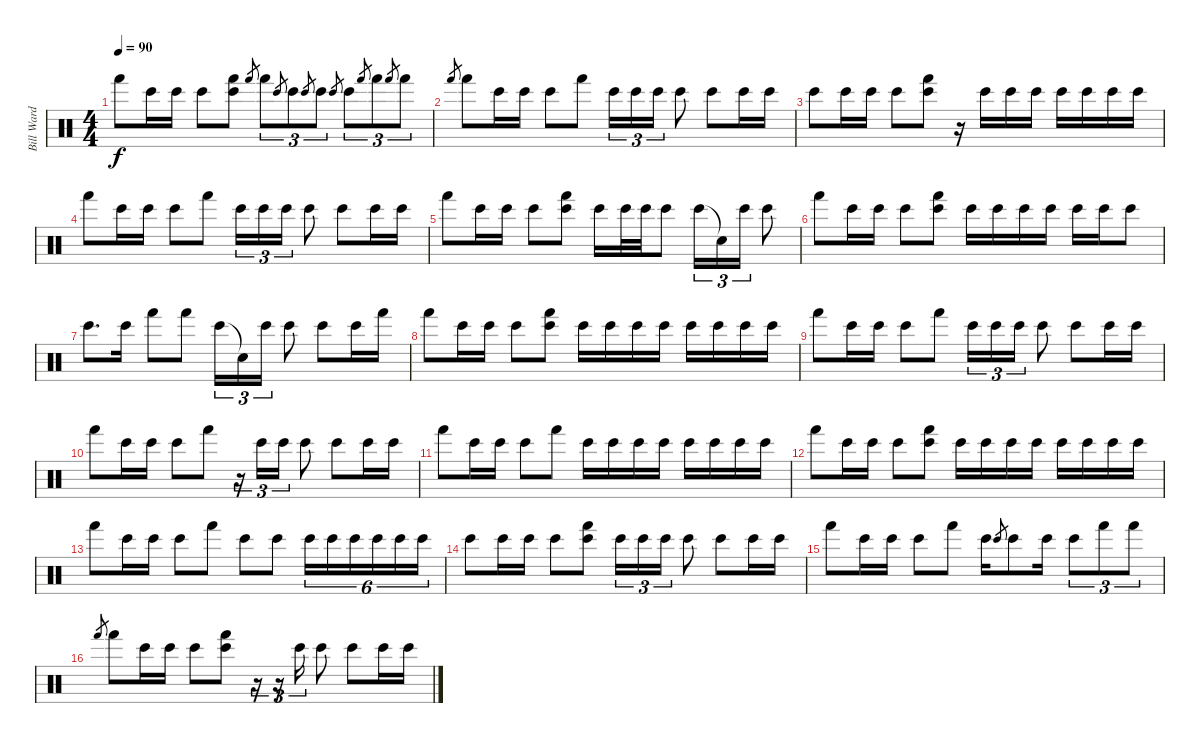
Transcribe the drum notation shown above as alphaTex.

\track ("Bill Ward" "Bill Ward") {instrument percussion}
\staff {score}
\articulation defaults
\ts (4 4)
\tempo 90
\clef neutral
\ks c "Hand (hit)".8{dy f} "Bongo High (hit)".16 "Bongo High (hit)".16 "Bongo High (hit)".8
("Bongo High (hit)" "Hand (hit)").8 "Hand (hit)".8{gr} "Hand (hit)".8{tu (3 2)} "Bongo High (hit)".8{gr} "Bongo High (hit)".8{tu (3 2)} "Bongo High (hit)".8{gr} "Bongo High (hit)".8{tu (3 2)} "Bongo High (hit)".8{gr} "Bongo High (hit)".8{tu (3 2)} "Hand (hit)".8{gr} "Hand (hit)".8{tu (3 2)} "Hand (hit)".8{gr} "Hand (hit)".8{tu (3 2)} |
"Hand (hit)".8{gr} "Hand (hit)".8 "Bongo High (hit)".16 "Bongo High (hit)".16 "Bongo High (hit)".8 "Hand (hit)".8 "Bongo High (hit)".16{tu (3 2)} "Bongo High (hit)".16{tu (3 2)} "Bongo High (hit)".16{tu (3 2)} "Bongo High (hit)".8 "Bongo High (hit)".8 "Bongo High (hit)".16 "Bongo High (hit)".16 |
"Bongo High (hit)".8 "Bongo High (hit)".16 "Bongo High (hit)".16 "Bongo High (hit)".8 ("Bongo High (hit)" "Hand (hit)").8 r.16 "Bongo High (hit)".16 "Bongo High (hit)".16 "Bongo High (hit)".16 "Bongo High (hit)".16 "Bongo High (hit)".16 "Bongo High (hit)".16 "Bongo High (hit)".16 |
"Hand (hit)".8 "Bongo High (hit)".16 "Bongo High (hit)".16 "Bongo High (hit)".8 "Hand (hit)".8 "Bongo High (hit)".16{tu (3 2)} "Bongo High (hit)".16{tu (3 2)} "Bongo High (hit)".16{tu (3 2)} "Bongo High (hit)".8 "Bongo High (hit)".8 "Bongo High (hit)".16 "Bongo High (hit)".16 |
"Hand (hit)".8 "Bongo High (hit)".16 "Bongo High (hit)".16 "Bongo High (hit)".8 ("Bongo High (hit)" "Hand (hit)").8 "Bongo High (hit)".16 "Bongo High (hit)".32 "Bongo High (hit)".32 "Bongo High (hit)".8 "Bongo High (hit)".16{tu (3 2)} "Snare (hit)"{t}.16{tu (3 2)} "Bongo High (hit)".16{tu (3 2)} "Bongo High (hit)".8 |
"Hand (hit)".8 "Bongo High (hit)".16 "Bongo High (hit)".16 "Bongo High (hit)".8 ("Bongo High (hit)" "Hand (hit)").8 "Bongo High (hit)".16 "Bongo High (hit)".16 "Bongo High (hit)".16 "Bongo High (hit)".16 "Bongo High (hit)".16 "Bongo High (hit)".16 "Bongo High (hit)".8 |
"Bongo High (hit)".8{d} "Bongo High (hit)".16 "Hand (hit)".8 "Hand (hit)".8 "Bongo High (hit)".16{tu (3 2)} "Snare (hit)"{t}.16{tu (3 2)} "Bongo High (hit)".16{tu (3 2)} "Bongo High (hit)".8 "Bongo High (hit)".8 "Bongo High (hit)".16 "Hand (hit)".16 |
"Hand (hit)".8 "Bongo High (hit)".16 "Bongo High (hit)".16 "Bongo High (hit)".8 ("Bongo High (hit)" "Hand (hit)").8 "Bongo High (hit)".16 "Bongo High (hit)".16 "Bongo High (hit)".16 "Bongo High (hit)".16 "Bongo High (hit)".16 "Bongo High (hit)".16 "Bongo High (hit)".16 "Bongo High (hit)".16 |
"Hand (hit)".8 "Bongo High (hit)".16 "Bongo High (hit)".16 "Bongo High (hit)".8 "Hand (hit)".8 "Bongo High (hit)".16{tu (3 2)} "Bongo High (hit)".16{tu (3 2)} "Bongo High (hit)".16{tu (3 2)} "Bongo High (hit)".8 "Bongo High (hit)".8 "Bongo High (hit)".16 "Bongo High (hit)".16 |
"Hand (hit)".8 "Bongo High (hit)".16 "Bongo High (hit)".16 "Bongo High (hit)".8 "Hand (hit)".8 r.16{tu (3 2)} "Bongo High (hit)".16{tu (3 2)} "Bongo High (hit)".16{tu (3 2)} "Bongo High (hit)".8 "Bongo High (hit)".8 "Bongo High (hit)".16 "Bongo High (hit)".16 |
"Hand (hit)".8 "Bongo High (hit)".16 "Bongo High (hit)".16 "Bongo High (hit)".8 "Hand (hit)".8 "Bongo High (hit)".16 "Bongo High (hit)".16 "Bongo High (hit)".16 "Bongo High (hit)".16 "Bongo High (hit)".16 "Bongo High (hit)".16 "Bongo High (hit)".16 "Bongo High (hit)".16 |
"Hand (hit)".8 "Bongo High (hit)".16 "Bongo High (hit)".16 "Bongo High (hit)".8 ("Bongo High (hit)" "Hand (hit)").8 "Bongo High (hit)".16 "Bongo High (hit)".16 "Bongo High (hit)".16 "Bongo High (hit)".16 "Bongo High (hit)".16 "Bongo High (hit)".16 "Bongo High (hit)".16 "Bongo High (hit)".16 |
"Hand (hit)".8 "Bongo High (hit)".16 "Bongo High (hit)".16 "Bongo High (hit)".8 "Hand (hit)".8 "Bongo High (hit)".8 "Bongo High (hit)".8 "Bongo High (hit)".16{tu (6 4)} "Bongo High (hit)".16{tu (6 4)} "Bongo High (hit)".16{tu (6 4)} "Bongo High (hit)".16{tu (6 4)} "Bongo High (hit)".16{tu (6 4)} "Bongo High (hit)".16{tu (6 4)} |
"Bongo High (hit)".8 "Bongo High (hit)".16 "Bongo High (hit)".16 "Bongo High (hit)".8 ("Bongo High (hit)" "Hand (hit)").8 "Bongo High (hit)".16{tu (3 2)} "Bongo High (hit)".16{tu (3 2)} "Bongo High (hit)".16{tu (3 2)} "Bongo High (hit)".8 "Bongo High (hit)".8 "Bongo High (hit)".16 "Bongo High (hit)".16 |
"Hand (hit)".8 "Bongo High (hit)".16 "Bongo High (hit)".16 "Bongo High (hit)".8 "Hand (hit)".8 "Bongo High (hit)".16 "Bongo High (hit)".8{gr} "Bongo High (hit)".8 "Bongo High (hit)".16 "Bongo High (hit)".8{tu (3 2)} "Hand (hit)".8{tu (3 2)} "Hand (hit)".8{tu (3 2)} |
"Hand (hit)".8{gr} "Hand (hit)".8{volume 8} "Bongo High (hit)".16 "Bongo High (hit)".16 "Bongo High (hit)".8 ("Bongo High (hit)" "Hand (hit)").8 r.16{tu (3 2)} r.16{tu (3 2)} "Bongo High (hit)".16{tu (3 2)} "Bongo High (hit)".8 "Bongo High (hit)".8 "Bongo High (hit)".16 "Bongo High (hit)".16
